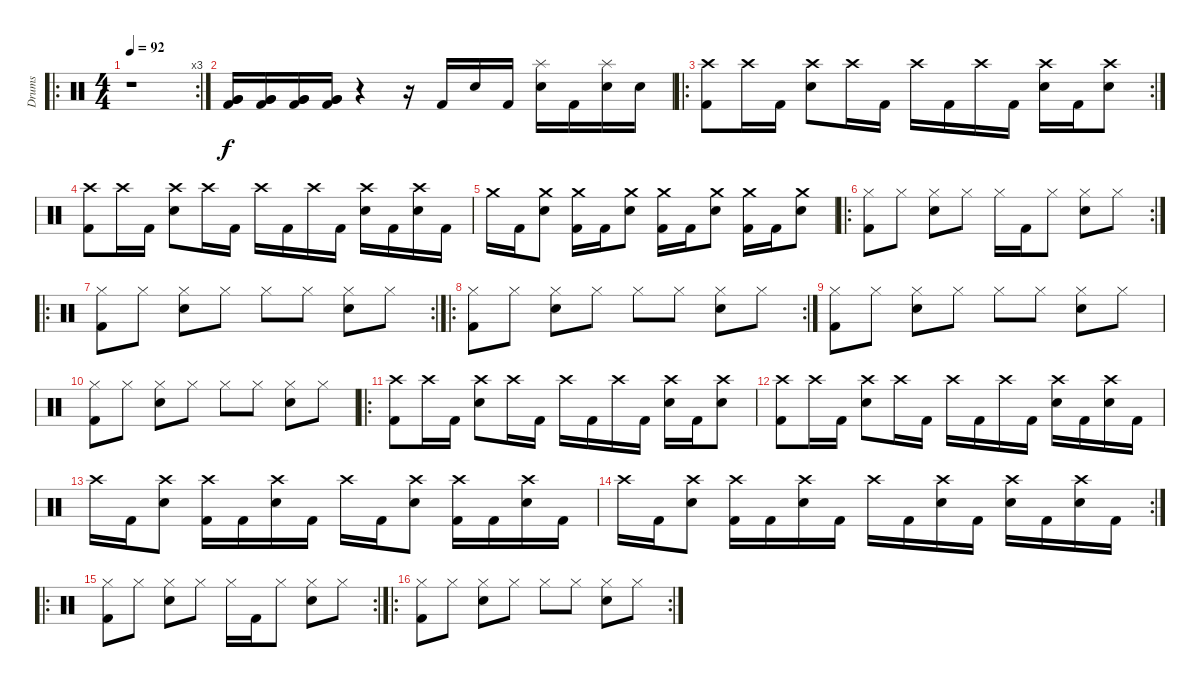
\track ("Drums" "Drums") {instrument percussion}
\staff {score}
\articulation defaults
\ro
\rc 3
\ts (4 4)
\tempo 92
\clef neutral
\ks c
r.1{dy f} |
("Very Low Tom (hit)" "Very Low Tom (hit)" "Kick (hit) 2").16 ("Very Low Tom (hit)" "Very Low Tom (hit)" "Kick (hit) 2").16 ("Very Low Tom (hit)" "Very Low Tom (hit)" "Kick (hit) 2").16 ("Very Low Tom (hit)" "Very Low Tom (hit)" "Kick (hit) 2").16 r.4 r.16 "Kick (hit) 2".16 "Electric Snare (hit)".16 "Kick (hit) 2".16 ("Splash (hit)" "Electric Snare (hit)").16 "Kick (hit) 2".16 ("Splash (hit)" "Electric Snare (hit)").16 "Electric Snare (hit)".16 |
\ro
\rc 2
("Crash high (hit)" "Kick (hit) 2").8 "Crash high (hit)".16 "Kick (hit) 2".16 ("Crash high (hit)" "Electric Snare (hit)").8 "Crash high (hit)".16 "Kick (hit) 2".16 "Crash high (hit)".16 "Kick (hit) 2".16 "Crash high (hit)".16 "Kick (hit) 2".16 ("Crash high (hit)" "Electric Snare (hit)").16 "Kick (hit) 2".16 ("Crash high (hit)" "Electric Snare (hit)").8 |
("Crash high (hit)" "Kick (hit) 2").8 "Crash high (hit)".16 "Kick (hit) 2".16 ("Crash high (hit)" "Electric Snare (hit)").8 "Crash high (hit)".16 "Kick (hit) 2".16 "Crash high (hit)".16 "Kick (hit) 2".16 "Crash high (hit)".16 "Kick (hit) 2".16 ("Crash high (hit)" "Electric Snare (hit)").16 "Kick (hit) 2".16 ("Crash high (hit)" "Electric Snare (hit)").16 "Kick (hit) 2".16 |
"Crash medium (hit)".16 "Kick (hit) 2".16 ("Crash medium (hit)" "Electric Snare (hit)").8 ("Crash medium (hit)" "Kick (hit) 2").16 "Kick (hit) 2".16 ("Crash medium (hit)" "Electric Snare (hit)").8 ("Crash medium (hit)" "Kick (hit) 2").16 "Kick (hit) 2".16 ("Crash medium (hit)" "Electric Snare (hit)").8 ("Crash medium (hit)" "Kick (hit) 2").16 "Kick (hit) 2".16 ("Crash medium (hit)" "Electric Snare (hit)").8 |
\ro
\rc 2
("Hi-Hat (closed)" "Kick (hit) 2").8 "Hi-Hat (closed)".8 ("Hi-Hat (closed)" "Electric Snare (hit)").8 "Hi-Hat (closed)".8 "Hi-Hat (closed)".16 "Kick (hit) 2".16 "Hi-Hat (closed)".8 ("Hi-Hat (closed)" "Electric Snare (hit)").8 "Hi-Hat (closed)".8 |
\ro
\rc 2
("Hi-Hat (closed)" "Kick (hit) 2").8 "Hi-Hat (closed)".8 ("Hi-Hat (closed)" "Electric Snare (hit)").8 "Hi-Hat (closed)".8 "Hi-Hat (closed)".8 "Hi-Hat (closed)".8 ("Hi-Hat (closed)" "Electric Snare (hit)").8 "Hi-Hat (closed)".8 |
\ro
\rc 2
("Hi-Hat (closed)" "Kick (hit) 2").8 "Hi-Hat (closed)".8 ("Hi-Hat (closed)" "Electric Snare (hit)").8 "Hi-Hat (closed)".8 "Hi-Hat (closed)".8 "Hi-Hat (closed)".8 ("Hi-Hat (closed)" "Electric Snare (hit)").8 "Hi-Hat (closed)".8 |
("Hi-Hat (closed)" "Kick (hit) 2").8 "Hi-Hat (closed)".8 ("Hi-Hat (closed)" "Electric Snare (hit)").8 "Hi-Hat (closed)".8 "Hi-Hat (closed)".8 "Hi-Hat (closed)".8 ("Hi-Hat (closed)" "Electric Snare (hit)").8 "Hi-Hat (closed)".8 |
("Hi-Hat (closed)" "Kick (hit) 2").8 "Hi-Hat (closed)".8 ("Hi-Hat (closed)" "Electric Snare (hit)").8 "Hi-Hat (closed)".8 "Hi-Hat (closed)".8 "Hi-Hat (closed)".8 ("Hi-Hat (closed)" "Electric Snare (hit)").8 "Hi-Hat (closed)".8 |
\ro
("Crash high (hit)" "Kick (hit) 2").8 "Crash high (hit)".16 "Kick (hit) 2".16 ("Crash high (hit)" "Electric Snare (hit)").8 "Crash high (hit)".16 "Kick (hit) 2".16 "Crash high (hit)".16 "Kick (hit) 2".16 "Crash high (hit)".16 "Kick (hit) 2".16 ("Crash high (hit)" "Electric Snare (hit)").16 "Kick (hit) 2".16 ("Crash high (hit)" "Electric Snare (hit)").8 |
("Crash high (hit)" "Kick (hit) 2").8 "Crash high (hit)".16 "Kick (hit) 2".16 ("Crash high (hit)" "Electric Snare (hit)").8 "Crash high (hit)".16 "Kick (hit) 2".16 "Crash high (hit)".16 "Kick (hit) 2".16 "Crash high (hit)".16 "Kick (hit) 2".16 ("Crash high (hit)" "Electric Snare (hit)").16 "Kick (hit) 2".16 ("Crash high (hit)" "Electric Snare (hit)").16 "Kick (hit) 2".16 |
"Crash high (hit)".16 "Kick (hit) 2".16 ("Crash high (hit)" "Electric Snare (hit)").8 ("Crash high (hit)" "Kick (hit) 2").16 "Kick (hit) 2".16 ("Crash high (hit)" "Electric Snare (hit)").16 "Kick (hit) 2".16 "Crash high (hit)".16 "Kick (hit) 2".16 ("Crash high (hit)" "Electric Snare (hit)").8 ("Crash high (hit)" "Kick (hit) 2").16 "Kick (hit) 2".16 ("Crash high (hit)" "Electric Snare (hit)").16 "Kick (hit) 2".16 |
\rc 2 "Crash high (hit)".16 "Kick (hit) 2".16
("Crash high (hit)" "Electric Snare (hit)").8 ("Crash high (hit)" "Kick (hit) 2").16 "Kick (hit) 2".16 ("Crash high (hit)" "Electric Snare (hit)").16 "Kick (hit) 2".16 "Crash high (hit)".16 "Kick (hit) 2".16 ("Crash high (hit)" "Electric Snare (hit)").16 "Kick (hit) 2".16 ("Crash high (hit)" "Electric Snare (hit)").16 "Kick (hit) 2".16 ("Crash high (hit)" "Electric Snare (hit)").16 "Kick (hit) 2".16 |
\ro
\rc 2
("Hi-Hat (closed)" "Kick (hit) 2").8 "Hi-Hat (closed)".8 ("Hi-Hat (closed)" "Electric Snare (hit)").8 "Hi-Hat (closed)".8 "Hi-Hat (closed)".16 "Kick (hit) 2".16 "Hi-Hat (closed)".8 ("Hi-Hat (closed)" "Electric Snare (hit)").8 "Hi-Hat (closed)".8 |
\ro
\rc 2
("Hi-Hat (closed)" "Kick (hit) 2").8 "Hi-Hat (closed)".8 ("Hi-Hat (closed)" "Electric Snare (hit)").8 "Hi-Hat (closed)".8 "Hi-Hat (closed)".8 "Hi-Hat (closed)".8 ("Hi-Hat (closed)" "Electric Snare (hit)").8 "Hi-Hat (closed)".8
